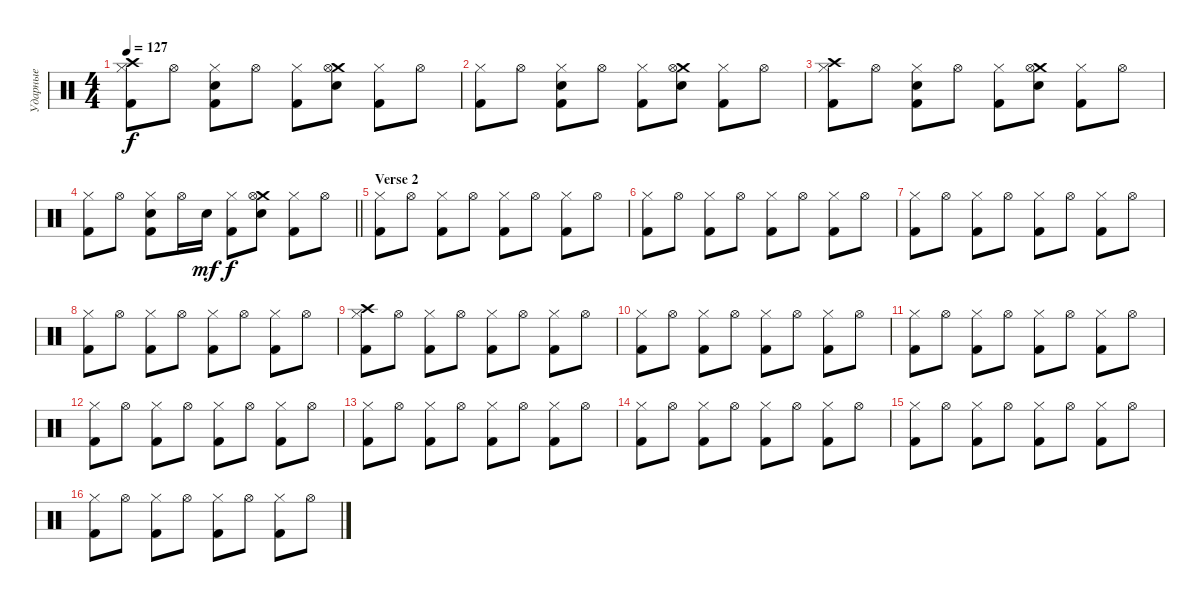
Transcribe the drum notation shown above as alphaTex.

\track ("Ударные" "Ударные") {instrument percussion}
\staff {score}
\articulation defaults
\ts (4 4)
\tempo 127
\clef neutral
\ks c
("Crash high (hit)" "Hi-Hat (closed)" "Kick (hit) 2").8{dy f} "Hi-Hat (open)".8 ("Hi-Hat (closed)" "Electric Snare (hit)" "Kick (hit) 2").8 "Hi-Hat (open)".8 ("Hi-Hat (closed)" "Kick (hit) 2").8 ("Crash medium (hit)" "Hi-Hat (open)" "Electric Snare (hit)").8 ("Hi-Hat (closed)" "Kick (hit) 2").8 "Hi-Hat (open)".8 |
("Hi-Hat (closed)" "Kick (hit) 2").8 "Hi-Hat (open)".8 ("Hi-Hat (closed)" "Electric Snare (hit)" "Kick (hit) 2").8 "Hi-Hat (open)".8 ("Hi-Hat (closed)" "Kick (hit) 2").8 ("Crash medium (hit)" "Hi-Hat (open)" "Electric Snare (hit)").8 ("Hi-Hat (closed)" "Kick (hit) 2").8 "Hi-Hat (open)".8 |
("Crash high (hit)" "Hi-Hat (closed)" "Kick (hit) 2").8 "Hi-Hat (open)".8 ("Hi-Hat (closed)" "Electric Snare (hit)" "Kick (hit) 2").8 "Hi-Hat (open)".8 ("Hi-Hat (closed)" "Kick (hit) 2").8 ("Crash medium (hit)" "Hi-Hat (open)" "Electric Snare (hit)").8 ("Hi-Hat (closed)" "Kick (hit) 2").8 "Hi-Hat (open)".8 |
\barLineRight lightlight
("Hi-Hat (closed)" "Kick (hit) 2").8 "Hi-Hat (open)".8 ("Hi-Hat (closed)" "Electric Snare (hit)" "Kick (hit) 2").8 "Hi-Hat (open)".16 "Electric Snare (hit)".16{dy mf} ("Hi-Hat (closed)" "Kick (hit) 2").8{dy f} ("Crash medium (hit)" "Hi-Hat (open)" "Electric Snare (hit)").8 ("Hi-Hat (closed)" "Kick (hit) 2").8 "Hi-Hat (open)".8 |
\section ("" "Verse 2")
("Hi-Hat (closed)" "Kick (hit) 2").8 "Hi-Hat (open)".8 ("Hi-Hat (closed)" "Kick (hit) 2").8 "Hi-Hat (open)".8 ("Hi-Hat (closed)" "Kick (hit) 2").8 "Hi-Hat (open)".8 ("Hi-Hat (closed)" "Kick (hit) 2").8 "Hi-Hat (open)".8 |
("Hi-Hat (closed)" "Kick (hit) 2").8 "Hi-Hat (open)".8 ("Hi-Hat (closed)" "Kick (hit) 2").8 "Hi-Hat (open)".8 ("Hi-Hat (closed)" "Kick (hit) 2").8 "Hi-Hat (open)".8 ("Hi-Hat (closed)" "Kick (hit) 2").8 "Hi-Hat (open)".8 |
("Hi-Hat (closed)" "Kick (hit) 2").8 "Hi-Hat (open)".8 ("Hi-Hat (closed)" "Kick (hit) 2").8 "Hi-Hat (open)".8 ("Hi-Hat (closed)" "Kick (hit) 2").8 "Hi-Hat (open)".8 ("Hi-Hat (closed)" "Kick (hit) 2").8 "Hi-Hat (open)".8 |
("Hi-Hat (closed)" "Kick (hit) 2").8 "Hi-Hat (open)".8 ("Hi-Hat (closed)" "Kick (hit) 2").8 "Hi-Hat (open)".8 ("Hi-Hat (closed)" "Kick (hit) 2").8 "Hi-Hat (open)".8 ("Hi-Hat (closed)" "Kick (hit) 2").8 "Hi-Hat (open)".8 |
("Crash high (hit)" "Hi-Hat (closed)" "Kick (hit) 2").8 "Hi-Hat (open)".8 ("Hi-Hat (closed)" "Kick (hit) 2").8 "Hi-Hat (open)".8 ("Hi-Hat (closed)" "Kick (hit) 2").8 "Hi-Hat (open)".8 ("Hi-Hat (closed)" "Kick (hit) 2").8 "Hi-Hat (open)".8 |
("Hi-Hat (closed)" "Kick (hit) 2").8 "Hi-Hat (open)".8 ("Hi-Hat (closed)" "Kick (hit) 2").8 "Hi-Hat (open)".8 ("Hi-Hat (closed)" "Kick (hit) 2").8 "Hi-Hat (open)".8 ("Hi-Hat (closed)" "Kick (hit) 2").8 "Hi-Hat (open)".8 |
("Hi-Hat (closed)" "Kick (hit) 2").8 "Hi-Hat (open)".8 ("Hi-Hat (closed)" "Kick (hit) 2").8 "Hi-Hat (open)".8 ("Hi-Hat (closed)" "Kick (hit) 2").8 "Hi-Hat (open)".8 ("Hi-Hat (closed)" "Kick (hit) 2").8 "Hi-Hat (open)".8 |
("Hi-Hat (closed)" "Kick (hit) 2").8 "Hi-Hat (open)".8 ("Hi-Hat (closed)" "Kick (hit) 2").8 "Hi-Hat (open)".8 ("Hi-Hat (closed)" "Kick (hit) 2").8 "Hi-Hat (open)".8 ("Hi-Hat (closed)" "Kick (hit) 2").8 "Hi-Hat (open)".8 |
("Hi-Hat (closed)" "Kick (hit) 2").8 "Hi-Hat (open)".8 ("Hi-Hat (closed)" "Kick (hit) 2").8 "Hi-Hat (open)".8 ("Hi-Hat (closed)" "Kick (hit) 2").8 "Hi-Hat (open)".8 ("Hi-Hat (closed)" "Kick (hit) 2").8 "Hi-Hat (open)".8 |
("Hi-Hat (closed)" "Kick (hit) 2").8 "Hi-Hat (open)".8 ("Hi-Hat (closed)" "Kick (hit) 2").8 "Hi-Hat (open)".8 ("Hi-Hat (closed)" "Kick (hit) 2").8 "Hi-Hat (open)".8 ("Hi-Hat (closed)" "Kick (hit) 2").8 "Hi-Hat (open)".8 |
("Hi-Hat (closed)" "Kick (hit) 2").8 "Hi-Hat (open)".8 ("Hi-Hat (closed)" "Kick (hit) 2").8 "Hi-Hat (open)".8 ("Hi-Hat (closed)" "Kick (hit) 2").8 "Hi-Hat (open)".8 ("Hi-Hat (closed)" "Kick (hit) 2").8 "Hi-Hat (open)".8 |
("Hi-Hat (closed)" "Kick (hit) 2").8 "Hi-Hat (open)".8 ("Hi-Hat (closed)" "Kick (hit) 2").8 "Hi-Hat (open)".8 ("Hi-Hat (closed)" "Kick (hit) 2").8 "Hi-Hat (open)".8 ("Hi-Hat (closed)" "Kick (hit) 2").8 "Hi-Hat (open)".8
